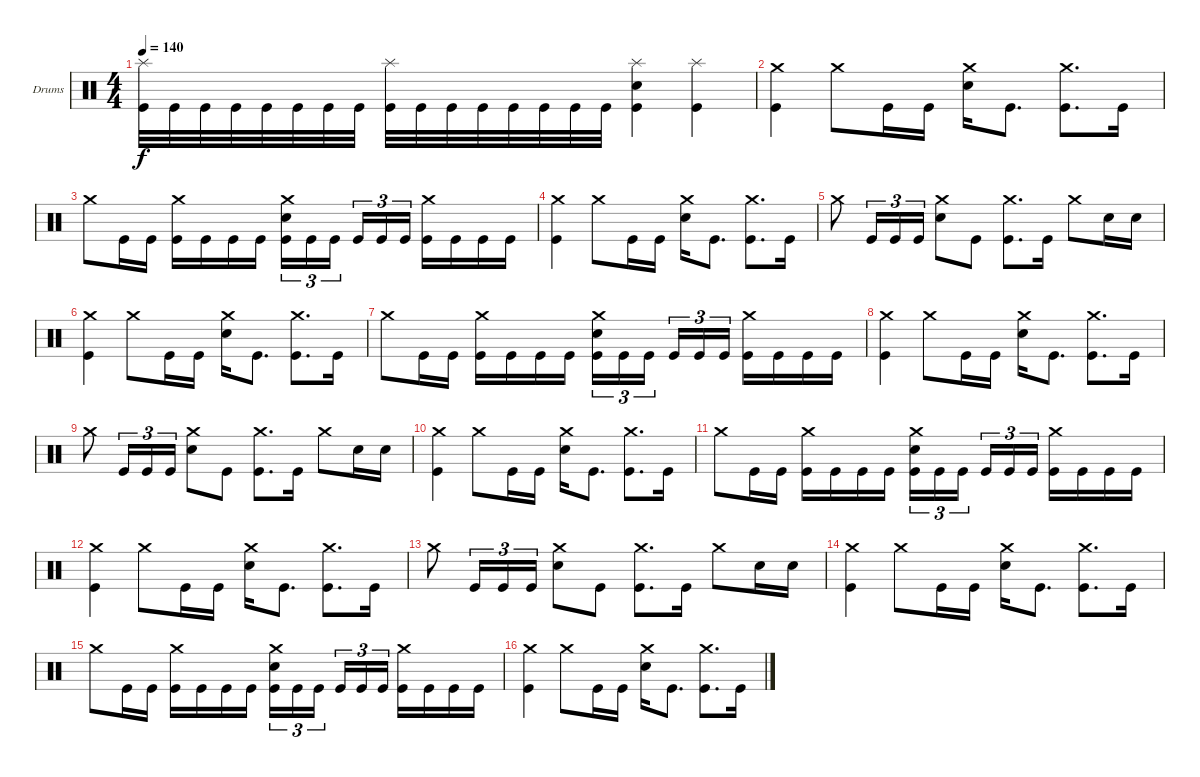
\defaultSystemsLayout 4
\bracketExtendMode groupsimilarinstruments
\firstSystemTrackNameOrientation horizontal
\otherSystemsTrackNameOrientation horizontal
\track ("Drumkit" "Drums") {instrument percussion}
\staff {score}
\articulation defaults
\ts (4 4)
\tempo 140
\clef neutral
\scale
0.333333
\ks c
("Splash (hit)" "Kick (hit)").32{dy f} "Kick (hit)".32 "Kick (hit)".32 "Kick (hit)".32 "Kick (hit)".32 "Kick (hit)".32 "Kick (hit)".32 "Kick (hit)".32 ("Splash (hit)" "Kick (hit)").32 "Kick (hit)".32 "Kick (hit)".32 "Kick (hit)".32 "Kick (hit)".32 "Kick (hit)".32 "Kick (hit)".32 "Kick (hit)".32 ("Splash (hit)" "Snare (hit) 2" "Kick (hit)").4 ("Splash (hit)" "Kick (hit)").4 |
\scale
0.333333 ("Crash medium (hit)" "Kick (hit)").4 "Crash medium (hit)".8 "Kick (hit)".16 "Kick (hit)".16 ("Crash medium (hit)" "Snare (hit) 2").16 "Kick (hit)".8{d} ("Crash medium (hit)" "Kick (hit)").8{d} "Kick (hit)".16 |
\scale
0.333333 "Crash medium (hit)".8 "Kick (hit)".16 "Kick (hit)".16 ("Crash medium (hit)" "Kick (hit)").16 "Kick (hit)".16 "Kick (hit)".16 "Kick (hit)".16 ("Crash medium (hit)" "Snare (hit) 2" "Kick (hit)").16{tu (3 2)} "Kick (hit)".16{tu (3 2)} "Kick (hit)".16{tu (3 2)} "Kick (hit)".16{tu (3 2)} "Kick (hit)".16{tu (3 2)} "Kick (hit)".16{tu (3 2)} ("Crash medium (hit)" "Kick (hit)").16 "Kick (hit)".16 "Kick (hit)".16 "Kick (hit)".16 |
\scale
0.333333 ("Crash medium (hit)" "Kick (hit)").4 "Crash medium (hit)".8 "Kick (hit)".16 "Kick (hit)".16 ("Crash medium (hit)" "Snare (hit) 2").16 "Kick (hit)".8{d} ("Crash medium (hit)" "Kick (hit)").8{d} "Kick (hit)".16 |
\scale
0.333333 "Crash medium (hit)".8 "Kick (hit)".16{tu (3 2)} "Kick (hit)".16{tu (3 2)} "Kick (hit)".16{tu (3 2)} ("Crash medium (hit)" "Snare (hit) 2").8 "Kick (hit)".8 ("Crash medium (hit)" "Kick (hit)").8{d} "Kick (hit)".16 "Crash medium (hit)".8 "Snare (hit) 2".16 "Snare (hit) 2".16 |
\scale
0.333333 ("Crash medium (hit)" "Kick (hit)").4 "Crash medium (hit)".8 "Kick (hit)".16 "Kick (hit)".16 ("Crash medium (hit)" "Snare (hit) 2").16 "Kick (hit)".8{d} ("Crash medium (hit)" "Kick (hit)").8{d} "Kick (hit)".16 |
\scale
0.333333 "Crash medium (hit)".8 "Kick (hit)".16 "Kick (hit)".16 ("Crash medium (hit)" "Kick (hit)").16 "Kick (hit)".16 "Kick (hit)".16 "Kick (hit)".16 ("Crash medium (hit)" "Snare (hit) 2" "Kick (hit)").16{tu (3 2)} "Kick (hit)".16{tu (3 2)} "Kick (hit)".16{tu (3 2)} "Kick (hit)".16{tu (3 2)} "Kick (hit)".16{tu (3 2)} "Kick (hit)".16{tu (3 2)} ("Crash medium (hit)" "Kick (hit)").16 "Kick (hit)".16 "Kick (hit)".16 "Kick (hit)".16 |
\scale
0.333333 ("Crash medium (hit)" "Kick (hit)").4 "Crash medium (hit)".8 "Kick (hit)".16 "Kick (hit)".16 ("Crash medium (hit)" "Snare (hit) 2").16 "Kick (hit)".8{d} ("Crash medium (hit)" "Kick (hit)").8{d} "Kick (hit)".16 |
\scale
0.333333 "Crash medium (hit)".8 "Kick (hit)".16{tu (3 2)} "Kick (hit)".16{tu (3 2)} "Kick (hit)".16{tu (3 2)} ("Crash medium (hit)" "Snare (hit) 2").8 "Kick (hit)".8 ("Crash medium (hit)" "Kick (hit)").8{d} "Kick (hit)".16 "Crash medium (hit)".8 "Snare (hit) 2".16 "Snare (hit) 2".16 |
\scale
0.333333 ("Crash medium (hit)" "Kick (hit)").4 "Crash medium (hit)".8 "Kick (hit)".16 "Kick (hit)".16 ("Crash medium (hit)" "Snare (hit) 2").16 "Kick (hit)".8{d} ("Crash medium (hit)" "Kick (hit)").8{d} "Kick (hit)".16 |
\scale
0.333333 "Crash medium (hit)".8 "Kick (hit)".16 "Kick (hit)".16 ("Crash medium (hit)" "Kick (hit)").16 "Kick (hit)".16 "Kick (hit)".16 "Kick (hit)".16 ("Crash medium (hit)" "Snare (hit) 2" "Kick (hit)").16{tu (3 2)} "Kick (hit)".16{tu (3 2)} "Kick (hit)".16{tu (3 2)} "Kick (hit)".16{tu (3 2)} "Kick (hit)".16{tu (3 2)} "Kick (hit)".16{tu (3 2)} ("Crash medium (hit)" "Kick (hit)").16 "Kick (hit)".16 "Kick (hit)".16 "Kick (hit)".16 |
\scale
0.333333 ("Crash medium (hit)" "Kick (hit)").4 "Crash medium (hit)".8 "Kick (hit)".16 "Kick (hit)".16 ("Crash medium (hit)" "Snare (hit) 2").16 "Kick (hit)".8{d} ("Crash medium (hit)" "Kick (hit)").8{d} "Kick (hit)".16 |
\scale
0.333333 "Crash medium (hit)".8 "Kick (hit)".16{tu (3 2)} "Kick (hit)".16{tu (3 2)} "Kick (hit)".16{tu (3 2)} ("Crash medium (hit)" "Snare (hit) 2").8 "Kick (hit)".8 ("Crash medium (hit)" "Kick (hit)").8{d} "Kick (hit)".16 "Crash medium (hit)".8 "Snare (hit) 2".16 "Snare (hit) 2".16 |
\scale
0.333333 ("Crash medium (hit)" "Kick (hit)").4 "Crash medium (hit)".8 "Kick (hit)".16 "Kick (hit)".16 ("Crash medium (hit)" "Snare (hit) 2").16 "Kick (hit)".8{d} ("Crash medium (hit)" "Kick (hit)").8{d} "Kick (hit)".16 |
\scale
0.333333 "Crash medium (hit)".8 "Kick (hit)".16 "Kick (hit)".16 ("Crash medium (hit)" "Kick (hit)").16 "Kick (hit)".16 "Kick (hit)".16 "Kick (hit)".16 ("Crash medium (hit)" "Snare (hit) 2" "Kick (hit)").16{tu (3 2)} "Kick (hit)".16{tu (3 2)} "Kick (hit)".16{tu (3 2)} "Kick (hit)".16{tu (3 2)} "Kick (hit)".16{tu (3 2)} "Kick (hit)".16{tu (3 2)} ("Crash medium (hit)" "Kick (hit)").16 "Kick (hit)".16 "Kick (hit)".16 "Kick (hit)".16 |
\scale
0.333333 ("Crash medium (hit)" "Kick (hit)").4 "Crash medium (hit)".8 "Kick (hit)".16 "Kick (hit)".16 ("Crash medium (hit)" "Snare (hit) 2").16 "Kick (hit)".8{d} ("Crash medium (hit)" "Kick (hit)").8{d} "Kick (hit)".16
